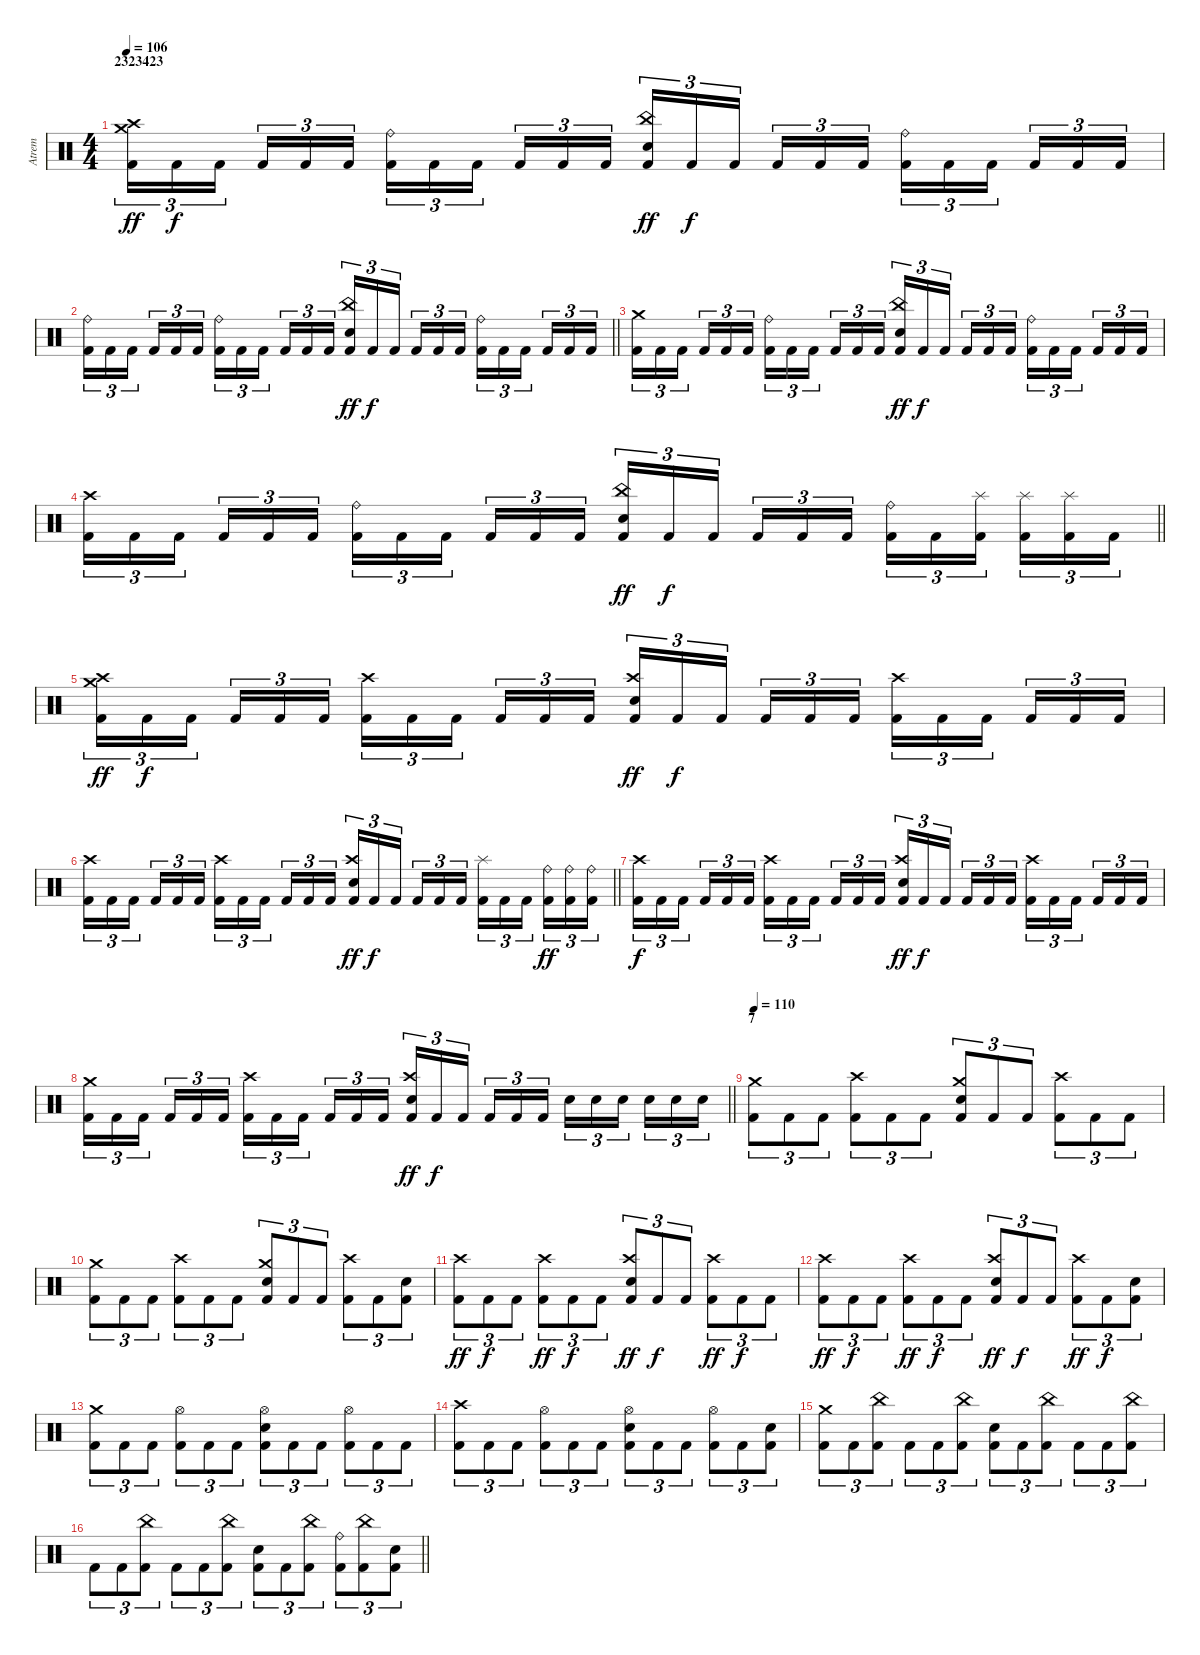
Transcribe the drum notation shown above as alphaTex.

\track ("Atrem" "Atrem") {instrument percussion}
\staff {score}
\articulation defaults
\ts (4 4)
\section ("" "2323423")
\tempo 106
\clef neutral
\ks c
("Kick (hit) 2" "Crash high (hit)" "Crash medium (hit)").16{tu (3 2) dy ff} "Kick (hit) 2".16{tu (3 2) dy f} "Kick (hit) 2".16{tu (3 2) beam splitsecondary} "Kick (hit) 2".16{tu (3 2)} "Kick (hit) 2".16{tu (3 2)} "Kick (hit) 2".16{tu (3 2)} ("Kick (hit) 2" "Ride (bell)").16{tu (3 2)} "Kick (hit) 2".16{tu (3 2)} "Kick (hit) 2".16{tu (3 2) beam splitsecondary} "Kick (hit) 2".16{tu (3 2)} "Kick (hit) 2".16{tu (3 2)} "Kick (hit) 2".16{tu (3 2)} ("Kick (hit) 2" "China (hit)" "Electric Snare (hit)").16{tu (3 2) dy ff} "Kick (hit) 2".16{tu (3 2) dy f} "Kick (hit) 2".16{tu (3 2) beam splitsecondary} "Kick (hit) 2".16{tu (3 2)} "Kick (hit) 2".16{tu (3 2)} "Kick (hit) 2".16{tu (3 2)} ("Kick (hit) 2" "Ride (bell)").16{tu (3 2)} "Kick (hit) 2".16{tu (3 2)} "Kick (hit) 2".16{tu (3 2) beam splitsecondary} "Kick (hit) 2".16{tu (3 2)} "Kick (hit) 2".16{tu (3 2)} "Kick (hit) 2".16{tu (3 2)} |
\barLineRight lightlight
("Kick (hit) 2" "Ride (bell)").16{tu (3 2)} "Kick (hit) 2".16{tu (3 2)} "Kick (hit) 2".16{tu (3 2) beam splitsecondary} "Kick (hit) 2".16{tu (3 2)} "Kick (hit) 2".16{tu (3 2)} "Kick (hit) 2".16{tu (3 2)} ("Kick (hit) 2" "Ride (bell)").16{tu (3 2)} "Kick (hit) 2".16{tu (3 2)} "Kick (hit) 2".16{tu (3 2) beam splitsecondary} "Kick (hit) 2".16{tu (3 2)} "Kick (hit) 2".16{tu (3 2)} "Kick (hit) 2".16{tu (3 2)} ("Kick (hit) 2" "China (hit)" "Electric Snare (hit)").16{tu (3 2) dy ff} "Kick (hit) 2".16{tu (3 2) dy f} "Kick (hit) 2".16{tu (3 2) beam splitsecondary} "Kick (hit) 2".16{tu (3 2)} "Kick (hit) 2".16{tu (3 2)} "Kick (hit) 2".16{tu (3 2)} ("Kick (hit) 2" "Ride (bell)").16{tu (3 2)} "Kick (hit) 2".16{tu (3 2)} "Kick (hit) 2".16{tu (3 2) beam splitsecondary} "Kick (hit) 2".16{tu (3 2)} "Kick (hit) 2".16{tu (3 2)} "Kick (hit) 2".16{tu (3 2)} |
("Kick (hit) 2" "Crash medium (hit)").16{tu (3 2)} "Kick (hit) 2".16{tu (3 2)} "Kick (hit) 2".16{tu (3 2) beam splitsecondary} "Kick (hit) 2".16{tu (3 2)} "Kick (hit) 2".16{tu (3 2)} "Kick (hit) 2".16{tu (3 2)} ("Kick (hit) 2" "Ride (bell)").16{tu (3 2)} "Kick (hit) 2".16{tu (3 2)} "Kick (hit) 2".16{tu (3 2) beam splitsecondary} "Kick (hit) 2".16{tu (3 2)} "Kick (hit) 2".16{tu (3 2)} "Kick (hit) 2".16{tu (3 2)} ("Kick (hit) 2" "China (hit)" "Electric Snare (hit)").16{tu (3 2) dy ff} "Kick (hit) 2".16{tu (3 2) dy f} "Kick (hit) 2".16{tu (3 2) beam splitsecondary} "Kick (hit) 2".16{tu (3 2)} "Kick (hit) 2".16{tu (3 2)} "Kick (hit) 2".16{tu (3 2)} ("Kick (hit) 2" "Ride (bell)").16{tu (3 2)} "Kick (hit) 2".16{tu (3 2)} "Kick (hit) 2".16{tu (3 2) beam splitsecondary} "Kick (hit) 2".16{tu (3 2)} "Kick (hit) 2".16{tu (3 2)} "Kick (hit) 2".16{tu (3 2)} |
\barLineRight lightlight
("Kick (hit) 2" "Crash high (hit)").16{tu (3 2)} "Kick (hit) 2".16{tu (3 2)} "Kick (hit) 2".16{tu (3 2) beam splitsecondary} "Kick (hit) 2".16{tu (3 2)} "Kick (hit) 2".16{tu (3 2)} "Kick (hit) 2".16{tu (3 2)} ("Kick (hit) 2" "Ride (bell)").16{tu (3 2)} "Kick (hit) 2".16{tu (3 2)} "Kick (hit) 2".16{tu (3 2) beam splitsecondary} "Kick (hit) 2".16{tu (3 2)} "Kick (hit) 2".16{tu (3 2)} "Kick (hit) 2".16{tu (3 2)} ("Kick (hit) 2" "China (hit)" "Electric Snare (hit)").16{tu (3 2) dy ff} "Kick (hit) 2".16{tu (3 2) dy f} "Kick (hit) 2".16{tu (3 2) beam splitsecondary} "Kick (hit) 2".16{tu (3 2)} "Kick (hit) 2".16{tu (3 2)} "Kick (hit) 2".16{tu (3 2)} ("Kick (hit) 2" "Ride (bell)").16{tu (3 2)} "Kick (hit) 2".16{tu (3 2)} ("Kick (hit) 2" "Splash (hit)").16{tu (3 2) beam splitsecondary} ("Kick (hit) 2" "Splash (hit)").16{tu (3 2)} ("Kick (hit) 2" "Splash (hit)").16{tu (3 2)} "Kick (hit) 2".16{tu (3 2)} |
("Kick (hit) 2" "Crash medium (hit)" "Crash high (hit)").16{tu (3 2) dy ff} "Kick (hit) 2".16{tu (3 2) dy f} "Kick (hit) 2".16{tu (3 2) beam splitsecondary} "Kick (hit) 2".16{tu (3 2)} "Kick (hit) 2".16{tu (3 2)} "Kick (hit) 2".16{tu (3 2)} ("Kick (hit) 2" "Crash high (hit)").16{tu (3 2)} "Kick (hit) 2".16{tu (3 2)} "Kick (hit) 2".16{tu (3 2) beam splitsecondary} "Kick (hit) 2".16{tu (3 2)} "Kick (hit) 2".16{tu (3 2)} "Kick (hit) 2".16{tu (3 2)} ("Kick (hit) 2" "Crash high (hit)" "Electric Snare (hit)").16{tu (3 2) dy ff} "Kick (hit) 2".16{tu (3 2) dy f} "Kick (hit) 2".16{tu (3 2) beam splitsecondary} "Kick (hit) 2".16{tu (3 2)} "Kick (hit) 2".16{tu (3 2)} "Kick (hit) 2".16{tu (3 2)} ("Kick (hit) 2" "Crash high (hit)").16{tu (3 2)} "Kick (hit) 2".16{tu (3 2)} "Kick (hit) 2".16{tu (3 2) beam splitsecondary} "Kick (hit) 2".16{tu (3 2)} "Kick (hit) 2".16{tu (3 2)} "Kick (hit) 2".16{tu (3 2)} |
\barLineRight lightlight
("Kick (hit) 2" "Crash high (hit)").16{tu (3 2)} "Kick (hit) 2".16{tu (3 2)} "Kick (hit) 2".16{tu (3 2) beam splitsecondary} "Kick (hit) 2".16{tu (3 2)} "Kick (hit) 2".16{tu (3 2)} "Kick (hit) 2".16{tu (3 2)} ("Kick (hit) 2" "Crash high (hit)").16{tu (3 2)} "Kick (hit) 2".16{tu (3 2)} "Kick (hit) 2".16{tu (3 2) beam splitsecondary} "Kick (hit) 2".16{tu (3 2)} "Kick (hit) 2".16{tu (3 2)} "Kick (hit) 2".16{tu (3 2)} ("Kick (hit) 2" "Crash high (hit)" "Electric Snare (hit)").16{tu (3 2) dy ff} "Kick (hit) 2".16{tu (3 2) dy f} "Kick (hit) 2".16{tu (3 2) beam splitsecondary} "Kick (hit) 2".16{tu (3 2)} "Kick (hit) 2".16{tu (3 2)} "Kick (hit) 2".16{tu (3 2)} ("Kick (hit) 2" "Splash (hit)").16{tu (3 2)} "Kick (hit) 2".16{tu (3 2)} "Kick (hit) 2".16{tu (3 2) beam splitsecondary} ("Kick (hit) 2" "Ride (bell)").16{tu (3 2) dy ff} ("Kick (hit) 2" "Ride (bell)").16{tu (3 2)} ("Kick (hit) 2" "Ride (bell)").16{tu (3 2)} |
("Kick (hit) 2" "Crash high (hit)").16{tu (3 2) dy f} "Kick (hit) 2".16{tu (3 2)} "Kick (hit) 2".16{tu (3 2) beam splitsecondary} "Kick (hit) 2".16{tu (3 2)} "Kick (hit) 2".16{tu (3 2)} "Kick (hit) 2".16{tu (3 2)} ("Kick (hit) 2" "Crash high (hit)").16{tu (3 2)} "Kick (hit) 2".16{tu (3 2)} "Kick (hit) 2".16{tu (3 2) beam splitsecondary} "Kick (hit) 2".16{tu (3 2)} "Kick (hit) 2".16{tu (3 2)} "Kick (hit) 2".16{tu (3 2)} ("Kick (hit) 2" "Crash high (hit)" "Electric Snare (hit)").16{tu (3 2) dy ff} "Kick (hit) 2".16{tu (3 2) dy f} "Kick (hit) 2".16{tu (3 2) beam splitsecondary} "Kick (hit) 2".16{tu (3 2)} "Kick (hit) 2".16{tu (3 2)} "Kick (hit) 2".16{tu (3 2)} ("Kick (hit) 2" "Crash high (hit)").16{tu (3 2)} "Kick (hit) 2".16{tu (3 2)} "Kick (hit) 2".16{tu (3 2) beam splitsecondary} "Kick (hit) 2".16{tu (3 2)} "Kick (hit) 2".16{tu (3 2)} "Kick (hit) 2".16{tu (3 2)} |
\barLineRight lightlight
("Kick (hit) 2" "Crash medium (hit)").16{tu (3 2)} "Kick (hit) 2".16{tu (3 2)} "Kick (hit) 2".16{tu (3 2) beam splitsecondary} "Kick (hit) 2".16{tu (3 2)} "Kick (hit) 2".16{tu (3 2)} "Kick (hit) 2".16{tu (3 2)} ("Kick (hit) 2" "Crash high (hit)").16{tu (3 2)} "Kick (hit) 2".16{tu (3 2)} "Kick (hit) 2".16{tu (3 2) beam splitsecondary} "Kick (hit) 2".16{tu (3 2)} "Kick (hit) 2".16{tu (3 2)} "Kick (hit) 2".16{tu (3 2)} ("Kick (hit) 2" "Crash high (hit)" "Electric Snare (hit)").16{tu (3 2) dy ff} "Kick (hit) 2".16{tu (3 2) dy f} "Kick (hit) 2".16{tu (3 2) beam splitsecondary} "Kick (hit) 2".16{tu (3 2)} "Kick (hit) 2".16{tu (3 2)} "Kick (hit) 2".16{tu (3 2)} "Electric Snare (hit)".16{tu (3 2)} "Electric Snare (hit)".16{tu (3 2)} "Electric Snare (hit)".16{tu (3 2) beam splitsecondary} "Electric Snare (hit)".16{tu (3 2)} "Electric Snare (hit)".16{tu (3 2)} "Electric Snare (hit)".16{tu (3 2)} |
\section ("" "7")
\tempo 110
("Kick (hit) 2" "Crash medium (hit)").8{tu (3 2)} "Kick (hit) 2".8{tu (3 2)} "Kick (hit) 2".8{tu (3 2)} ("Kick (hit) 2" "Crash high (hit)").8{tu (3 2)} "Kick (hit) 2".8{tu (3 2)} "Kick (hit) 2".8{tu (3 2)} ("Kick (hit) 2" "Crash medium (hit)" "Electric Snare (hit)").8{tu (3 2)} "Kick (hit) 2".8{tu (3 2)} "Kick (hit) 2".8{tu (3 2)} ("Kick (hit) 2" "Crash high (hit)").8{tu (3 2)} "Kick (hit) 2".8{tu (3 2)} "Kick (hit) 2".8{tu (3 2)} |
("Kick (hit) 2" "Crash medium (hit)").8{tu (3 2)} "Kick (hit) 2".8{tu (3 2)} "Kick (hit) 2".8{tu (3 2)} ("Kick (hit) 2" "Crash high (hit)").8{tu (3 2)} "Kick (hit) 2".8{tu (3 2)} "Kick (hit) 2".8{tu (3 2)} ("Kick (hit) 2" "Crash medium (hit)" "Electric Snare (hit)").8{tu (3 2)} "Kick (hit) 2".8{tu (3 2)} "Kick (hit) 2".8{tu (3 2)} ("Kick (hit) 2" "Crash high (hit)").8{tu (3 2)} "Kick (hit) 2".8{tu (3 2)} ("Kick (hit) 2" "Electric Snare (hit)").8{tu (3 2)} |
("Kick (hit) 2" "Crash high (hit)").8{tu (3 2) dy ff} "Kick (hit) 2".8{tu (3 2) dy f} "Kick (hit) 2".8{tu (3 2)} ("Kick (hit) 2" "Crash high (hit)").8{tu (3 2) dy ff} "Kick (hit) 2".8{tu (3 2) dy f} "Kick (hit) 2".8{tu (3 2)} ("Kick (hit) 2" "Electric Snare (hit)" "Crash high (hit)").8{tu (3 2) dy ff} "Kick (hit) 2".8{tu (3 2) dy f} "Kick (hit) 2".8{tu (3 2)} ("Kick (hit) 2" "Crash high (hit)").8{tu (3 2) dy ff} "Kick (hit) 2".8{tu (3 2) dy f} "Kick (hit) 2".8{tu (3 2)} |
("Kick (hit) 2" "Crash high (hit)").8{tu (3 2) dy ff} "Kick (hit) 2".8{tu (3 2) dy f} "Kick (hit) 2".8{tu (3 2)} ("Kick (hit) 2" "Crash high (hit)").8{tu (3 2) dy ff} "Kick (hit) 2".8{tu (3 2) dy f} "Kick (hit) 2".8{tu (3 2)} ("Kick (hit) 2" "Electric Snare (hit)" "Crash high (hit)").8{tu (3 2) dy ff} "Kick (hit) 2".8{tu (3 2) dy f} "Kick (hit) 2".8{tu (3 2)} ("Kick (hit) 2" "Crash high (hit)").8{tu (3 2) dy ff} "Kick (hit) 2".8{tu (3 2) dy f} ("Kick (hit) 2" "Electric Snare (hit)").8{tu (3 2)} |
("Kick (hit) 2" "Crash medium (hit)").8{tu (3 2)} "Kick (hit) 2".8{tu (3 2)} "Kick (hit) 2".8{tu (3 2)} ("Kick (hit) 2" "Hi-Hat (open)").8{tu (3 2)} "Kick (hit) 2".8{tu (3 2)} "Kick (hit) 2".8{tu (3 2)} ("Kick (hit) 2" "Hi-Hat (open)" "Electric Snare (hit)").8{tu (3 2)} "Kick (hit) 2".8{tu (3 2)} "Kick (hit) 2".8{tu (3 2)} ("Kick (hit) 2" "Hi-Hat (open)").8{tu (3 2)} "Kick (hit) 2".8{tu (3 2)} "Kick (hit) 2".8{tu (3 2)} |
("Kick (hit) 2" "Crash high (hit)").8{tu (3 2)} "Kick (hit) 2".8{tu (3 2)} "Kick (hit) 2".8{tu (3 2)} ("Kick (hit) 2" "Hi-Hat (open)").8{tu (3 2)} "Kick (hit) 2".8{tu (3 2)} "Kick (hit) 2".8{tu (3 2)} ("Kick (hit) 2" "Hi-Hat (open)" "Electric Snare (hit)").8{tu (3 2)} "Kick (hit) 2".8{tu (3 2)} "Kick (hit) 2".8{tu (3 2)} ("Kick (hit) 2" "Hi-Hat (open)").8{tu (3 2)} "Kick (hit) 2".8{tu (3 2)} ("Kick (hit) 2" "Electric Snare (hit)").8{tu (3 2)} |
("Kick (hit) 2" "Crash medium (hit)").8{tu (3 2)} "Kick (hit) 2".8{tu (3 2)} ("Kick (hit) 2" "China (hit)").8{tu (3 2)} "Kick (hit) 2".8{tu (3 2)} "Kick (hit) 2".8{tu (3 2)} ("Kick (hit) 2" "China (hit)").8{tu (3 2)} ("Kick (hit) 2" "Electric Snare (hit)").8{tu (3 2)} "Kick (hit) 2".8{tu (3 2)} ("Kick (hit) 2" "China (hit)").8{tu (3 2)} "Kick (hit) 2".8{tu (3 2)} "Kick (hit) 2".8{tu (3 2)} ("Kick (hit) 2" "China (hit)").8{tu (3 2)} |
\barLineRight lightlight "Kick (hit) 2".8{tu (3 2)} "Kick (hit) 2".8{tu (3 2)}
("Kick (hit) 2" "China (hit)").8{tu (3 2)} "Kick (hit) 2".8{tu (3 2)} "Kick (hit) 2".8{tu (3 2)} ("Kick (hit) 2" "China (hit)").8{tu (3 2)} ("Kick (hit) 2" "Electric Snare (hit)").8{tu (3 2)} "Kick (hit) 2".8{tu (3 2)} ("Kick (hit) 2" "China (hit)").8{tu (3 2)} ("Kick (hit) 2" "Ride (bell)").8{tu (3 2)} ("Kick (hit) 2" "China (hit)").8{tu (3 2)} ("Kick (hit) 2" "Electric Snare (hit)").8{tu (3 2)}
